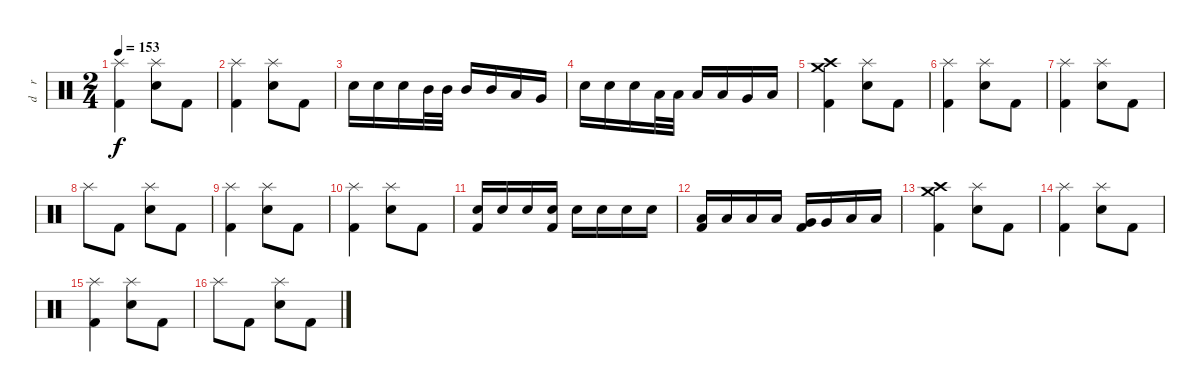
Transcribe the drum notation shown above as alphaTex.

\track ("d    r     u    m    s" "d    r    ") {instrument percussion}
\staff {score}
\articulation defaults
\ts (2 4)
\tempo 153
\clef neutral
\ks c
("Splash (hit)" "Kick (hit) 2").4{dy f} ("Splash (hit)" "Electric Snare (hit)").8 "Kick (hit) 2".8 |
("Splash (hit)" "Kick (hit) 2").4 ("Splash (hit)" "Electric Snare (hit)").8 "Kick (hit) 2".8 |
"Electric Snare (hit)".16 "Electric Snare (hit)".16 "Electric Snare (hit)".16 "Mid Tom (hit)".32 "Mid Tom (hit)".32 "Mid Tom (hit)".16 "Mid Tom (hit)".16 "Low Tom (hit)".16 "Very Low Tom (hit)".16 |
"Electric Snare (hit)".16 "Electric Snare (hit)".16 "Electric Snare (hit)".16 "Low Tom (hit)".32 "Low Tom (hit)".32 "Low Tom (hit)".16 "Low Tom (hit)".16 "Very Low Tom (hit)".16 "Low Floor Tom (hit)".16 |
("Crash high (hit)" "Crash medium (hit)" "Kick (hit) 2").4 ("Splash (hit)" "Electric Snare (hit)").8 "Kick (hit) 2".8 |
("Splash (hit)" "Kick (hit) 2").4 ("Splash (hit)" "Electric Snare (hit)").8 "Kick (hit) 2".8 |
("Splash (hit)" "Kick (hit) 2").4 ("Splash (hit)" "Electric Snare (hit)").8 "Kick (hit) 2".8 |
"Splash (hit)".8 "Kick (hit) 2".8 ("Splash (hit)" "Electric Snare (hit)").8 "Kick (hit) 2".8 |
("Splash (hit)" "Kick (hit) 2").4 ("Splash (hit)" "Electric Snare (hit)").8 "Kick (hit) 2".8 |
("Splash (hit)" "Kick (hit) 2").4 ("Splash (hit)" "Electric Snare (hit)").8 "Kick (hit) 2".8 |
("Electric Snare (hit)" "Kick (hit) 2").16 "Electric Snare (hit)".16 "Electric Snare (hit)".16 ("Electric Snare (hit)" "Kick (hit) 2").16 "Electric Snare (hit)".16 "Electric Snare (hit)".16 "Electric Snare (hit)".16 "Electric Snare (hit)".16 |
("Low Tom (hit)" "Kick (hit) 2").16 "Low Tom (hit)".16 "Low Tom (hit)".16 "Low Tom (hit)".16 ("Very Low Tom (hit)" "Kick (hit) 2").16 "Very Low Tom (hit)".16 "Low Floor Tom (hit)".16 "Low Floor Tom (hit)".16 |
("Crash high (hit)" "Crash medium (hit)" "Kick (hit) 2").4 ("Splash (hit)" "Electric Snare (hit)").8 "Kick (hit) 2".8 |
("Splash (hit)" "Kick (hit) 2").4 ("Splash (hit)" "Electric Snare (hit)").8 "Kick (hit) 2".8 |
("Splash (hit)" "Kick (hit) 2").4 ("Splash (hit)" "Electric Snare (hit)").8 "Kick (hit) 2".8 |
"Splash (hit)".8 "Kick (hit) 2".8 ("Splash (hit)" "Electric Snare (hit)").8 "Kick (hit) 2".8
